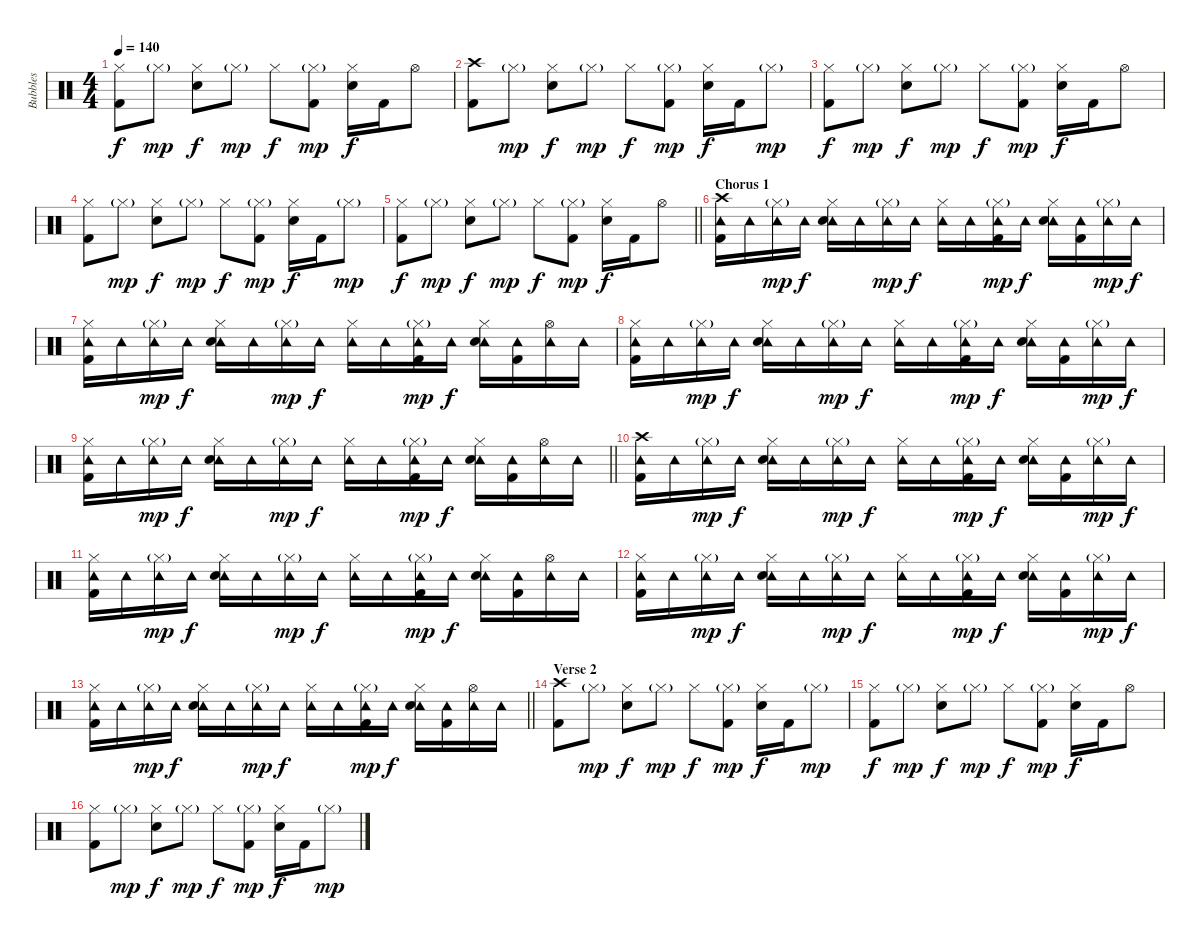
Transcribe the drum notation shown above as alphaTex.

\track ("Bubbles" "Bubbles") {instrument percussion}
\staff {score}
\articulation defaults
\ts (4 4)
\tempo 140
\clef neutral
\ks c
("Hi-Hat (closed)" "Kick (hit) 2").8{dy f} "Hi-Hat (closed)"{g}.8{dy mp} ("Hi-Hat (closed)" "Snare (hit) 2").8{dy f} "Hi-Hat (closed)"{g}.8{dy mp} "Hi-Hat (closed)".8{dy f} ("Hi-Hat (closed)"{g} "Kick (hit) 2").8{dy mp} ("Hi-Hat (closed)" "Snare (hit) 2").16{dy f} "Kick (hit) 2".16 "Hi-Hat (open)".8 |
("Crash high (hit)" "Kick (hit) 2").8 "Hi-Hat (closed)"{g}.8{dy mp} ("Hi-Hat (closed)" "Snare (hit) 2").8{dy f} "Hi-Hat (closed)"{g}.8{dy mp} "Hi-Hat (closed)".8{dy f} ("Hi-Hat (closed)"{g} "Kick (hit) 2").8{dy mp} ("Hi-Hat (closed)" "Snare (hit) 2").16{dy f} "Kick (hit) 2".16 "Hi-Hat (closed)"{g}.8{dy mp} |
("Hi-Hat (closed)" "Kick (hit) 2").8{dy f} "Hi-Hat (closed)"{g}.8{dy mp} ("Hi-Hat (closed)" "Snare (hit) 2").8{dy f} "Hi-Hat (closed)"{g}.8{dy mp} "Hi-Hat (closed)".8{dy f} ("Hi-Hat (closed)"{g} "Kick (hit) 2").8{dy mp} ("Hi-Hat (closed)" "Snare (hit) 2").16{dy f} "Kick (hit) 2".16 "Hi-Hat (open)".8 |
("Hi-Hat (closed)" "Kick (hit) 2").8 "Hi-Hat (closed)"{g}.8{dy mp} ("Hi-Hat (closed)" "Snare (hit) 2").8{dy f} "Hi-Hat (closed)"{g}.8{dy mp} "Hi-Hat (closed)".8{dy f} ("Hi-Hat (closed)"{g} "Kick (hit) 2").8{dy mp} ("Hi-Hat (closed)" "Snare (hit) 2").16{dy f} "Kick (hit) 2".16 "Hi-Hat (closed)"{g}.8{dy mp} |
\barLineRight lightlight
("Hi-Hat (closed)" "Kick (hit) 2").8{dy f} "Hi-Hat (closed)"{g}.8{dy mp} ("Hi-Hat (closed)" "Snare (hit) 2").8{dy f} "Hi-Hat (closed)"{g}.8{dy mp} "Hi-Hat (closed)".8{dy f} ("Hi-Hat (closed)"{g} "Kick (hit) 2").8{dy mp} ("Hi-Hat (closed)" "Snare (hit) 2").16{dy f} "Kick (hit) 2".16 "Hi-Hat (open)".8 |
\section ("" "Chorus 1")
("Crash high (hit)" "Tambourine (hit)" "Kick (hit) 2").16 "Tambourine (hit)".16 ("Tambourine (hit)" "Hi-Hat (closed)"{g}).16{dy mp} "Tambourine (hit)".16{dy f} ("Tambourine (hit)" "Hi-Hat (closed)" "Snare (hit) 2").16 "Tambourine (hit)".16 ("Tambourine (hit)" "Hi-Hat (closed)"{g}).16{dy mp} "Tambourine (hit)".16{dy f} ("Tambourine (hit)" "Hi-Hat (closed)").16 "Tambourine (hit)".16 ("Tambourine (hit)" "Hi-Hat (closed)"{g} "Kick (hit) 2").16{dy mp} "Tambourine (hit)".16{dy f} ("Tambourine (hit)" "Hi-Hat (closed)" "Snare (hit) 2").16 ("Tambourine (hit)" "Kick (hit) 2").16 ("Tambourine (hit)" "Hi-Hat (closed)"{g}).16{dy mp} "Tambourine (hit)".16{dy f} |
("Tambourine (hit)" "Hi-Hat (closed)" "Kick (hit) 2").16 "Tambourine (hit)".16 ("Tambourine (hit)" "Hi-Hat (closed)"{g}).16{dy mp} "Tambourine (hit)".16{dy f} ("Tambourine (hit)" "Hi-Hat (closed)" "Snare (hit) 2").16 "Tambourine (hit)".16 ("Tambourine (hit)" "Hi-Hat (closed)"{g}).16{dy mp} "Tambourine (hit)".16{dy f} ("Tambourine (hit)" "Hi-Hat (closed)").16 "Tambourine (hit)".16 ("Tambourine (hit)" "Hi-Hat (closed)"{g} "Kick (hit) 2").16{dy mp} "Tambourine (hit)".16{dy f} ("Tambourine (hit)" "Hi-Hat (closed)" "Snare (hit) 2").16 ("Tambourine (hit)" "Kick (hit) 2").16 ("Tambourine (hit)" "Hi-Hat (open)").16 "Tambourine (hit)".16 |
("Tambourine (hit)" "Hi-Hat (closed)" "Kick (hit) 2").16 "Tambourine (hit)".16 ("Tambourine (hit)" "Hi-Hat (closed)"{g}).16{dy mp} "Tambourine (hit)".16{dy f} ("Tambourine (hit)" "Hi-Hat (closed)" "Snare (hit) 2").16 "Tambourine (hit)".16 ("Tambourine (hit)" "Hi-Hat (closed)"{g}).16{dy mp} "Tambourine (hit)".16{dy f} ("Tambourine (hit)" "Hi-Hat (closed)").16 "Tambourine (hit)".16 ("Tambourine (hit)" "Hi-Hat (closed)"{g} "Kick (hit) 2").16{dy mp} "Tambourine (hit)".16{dy f} ("Tambourine (hit)" "Hi-Hat (closed)" "Snare (hit) 2").16 ("Tambourine (hit)" "Kick (hit) 2").16 ("Tambourine (hit)" "Hi-Hat (closed)"{g}).16{dy mp} "Tambourine (hit)".16{dy f} |
\barLineRight lightlight
("Tambourine (hit)" "Hi-Hat (closed)" "Kick (hit) 2").16 "Tambourine (hit)".16 ("Tambourine (hit)" "Hi-Hat (closed)"{g}).16{dy mp} "Tambourine (hit)".16{dy f} ("Tambourine (hit)" "Hi-Hat (closed)" "Snare (hit) 2").16 "Tambourine (hit)".16 ("Tambourine (hit)" "Hi-Hat (closed)"{g}).16{dy mp} "Tambourine (hit)".16{dy f} ("Tambourine (hit)" "Hi-Hat (closed)").16 "Tambourine (hit)".16 ("Tambourine (hit)" "Hi-Hat (closed)"{g} "Kick (hit) 2").16{dy mp} "Tambourine (hit)".16{dy f} ("Tambourine (hit)" "Hi-Hat (closed)" "Snare (hit) 2").16 ("Tambourine (hit)" "Kick (hit) 2").16 ("Tambourine (hit)" "Hi-Hat (open)").16 "Tambourine (hit)".16 |
("Crash high (hit)" "Tambourine (hit)" "Kick (hit) 2").16 "Tambourine (hit)".16 ("Tambourine (hit)" "Hi-Hat (closed)"{g}).16{dy mp} "Tambourine (hit)".16{dy f} ("Tambourine (hit)" "Hi-Hat (closed)" "Snare (hit) 2").16 "Tambourine (hit)".16 ("Tambourine (hit)" "Hi-Hat (closed)"{g}).16{dy mp} "Tambourine (hit)".16{dy f} ("Tambourine (hit)" "Hi-Hat (closed)").16 "Tambourine (hit)".16 ("Tambourine (hit)" "Hi-Hat (closed)"{g} "Kick (hit) 2").16{dy mp} "Tambourine (hit)".16{dy f} ("Tambourine (hit)" "Hi-Hat (closed)" "Snare (hit) 2").16 ("Tambourine (hit)" "Kick (hit) 2").16 ("Tambourine (hit)" "Hi-Hat (closed)"{g}).16{dy mp} "Tambourine (hit)".16{dy f} |
("Tambourine (hit)" "Hi-Hat (closed)" "Kick (hit) 2").16 "Tambourine (hit)".16 ("Tambourine (hit)" "Hi-Hat (closed)"{g}).16{dy mp} "Tambourine (hit)".16{dy f} ("Tambourine (hit)" "Hi-Hat (closed)" "Snare (hit) 2").16 "Tambourine (hit)".16 ("Tambourine (hit)" "Hi-Hat (closed)"{g}).16{dy mp} "Tambourine (hit)".16{dy f} ("Tambourine (hit)" "Hi-Hat (closed)").16 "Tambourine (hit)".16 ("Tambourine (hit)" "Hi-Hat (closed)"{g} "Kick (hit) 2").16{dy mp} "Tambourine (hit)".16{dy f} ("Tambourine (hit)" "Hi-Hat (closed)" "Snare (hit) 2").16 ("Tambourine (hit)" "Kick (hit) 2").16 ("Tambourine (hit)" "Hi-Hat (open)").16 "Tambourine (hit)".16 |
("Tambourine (hit)" "Hi-Hat (closed)" "Kick (hit) 2").16 "Tambourine (hit)".16 ("Tambourine (hit)" "Hi-Hat (closed)"{g}).16{dy mp} "Tambourine (hit)".16{dy f} ("Tambourine (hit)" "Hi-Hat (closed)" "Snare (hit) 2").16 "Tambourine (hit)".16 ("Tambourine (hit)" "Hi-Hat (closed)"{g}).16{dy mp} "Tambourine (hit)".16{dy f} ("Tambourine (hit)" "Hi-Hat (closed)").16 "Tambourine (hit)".16 ("Tambourine (hit)" "Hi-Hat (closed)"{g} "Kick (hit) 2").16{dy mp} "Tambourine (hit)".16{dy f} ("Tambourine (hit)" "Hi-Hat (closed)" "Snare (hit) 2").16 ("Tambourine (hit)" "Kick (hit) 2").16 ("Tambourine (hit)" "Hi-Hat (closed)"{g}).16{dy mp} "Tambourine (hit)".16{dy f} |
\barLineRight lightlight
("Tambourine (hit)" "Hi-Hat (closed)" "Kick (hit) 2").16 "Tambourine (hit)".16 ("Tambourine (hit)" "Hi-Hat (closed)"{g}).16{dy mp} "Tambourine (hit)".16{dy f} ("Tambourine (hit)" "Hi-Hat (closed)" "Snare (hit) 2").16 "Tambourine (hit)".16 ("Tambourine (hit)" "Hi-Hat (closed)"{g}).16{dy mp} "Tambourine (hit)".16{dy f} ("Tambourine (hit)" "Hi-Hat (closed)").16 "Tambourine (hit)".16 ("Tambourine (hit)" "Hi-Hat (closed)"{g} "Kick (hit) 2").16{dy mp} "Tambourine (hit)".16{dy f} ("Tambourine (hit)" "Hi-Hat (closed)" "Snare (hit) 2").16 ("Tambourine (hit)" "Kick (hit) 2").16 ("Tambourine (hit)" "Hi-Hat (open)").16 "Tambourine (hit)".16 |
\section ("" "Verse 2")
("Crash high (hit)" "Kick (hit) 2").8 "Hi-Hat (closed)"{g}.8{dy mp} ("Hi-Hat (closed)" "Snare (hit) 2").8{dy f} "Hi-Hat (closed)"{g}.8{dy mp} "Hi-Hat (closed)".8{dy f} ("Hi-Hat (closed)"{g} "Kick (hit) 2").8{dy mp} ("Hi-Hat (closed)" "Snare (hit) 2").16{dy f} "Kick (hit) 2".16 "Hi-Hat (closed)"{g}.8{dy mp} |
("Hi-Hat (closed)" "Kick (hit) 2").8{dy f} "Hi-Hat (closed)"{g}.8{dy mp} ("Hi-Hat (closed)" "Snare (hit) 2").8{dy f} "Hi-Hat (closed)"{g}.8{dy mp} "Hi-Hat (closed)".8{dy f} ("Hi-Hat (closed)"{g} "Kick (hit) 2").8{dy mp} ("Hi-Hat (closed)" "Snare (hit) 2").16{dy f} "Kick (hit) 2".16 "Hi-Hat (open)".8 |
("Hi-Hat (closed)" "Kick (hit) 2").8 "Hi-Hat (closed)"{g}.8{dy mp} ("Hi-Hat (closed)" "Snare (hit) 2").8{dy f} "Hi-Hat (closed)"{g}.8{dy mp} "Hi-Hat (closed)".8{dy f} ("Hi-Hat (closed)"{g} "Kick (hit) 2").8{dy mp} ("Hi-Hat (closed)" "Snare (hit) 2").16{dy f} "Kick (hit) 2".16 "Hi-Hat (closed)"{g}.8{dy mp}
